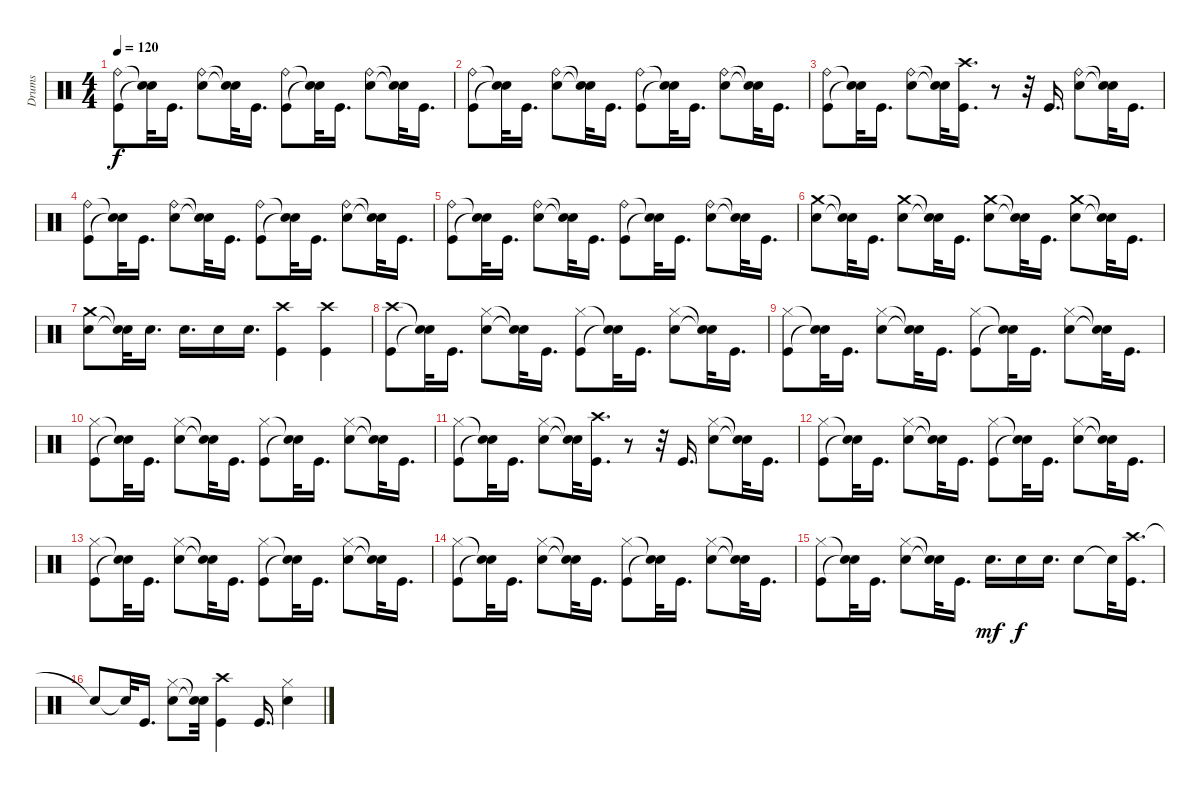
\track ("Drums" "Drums") {instrument percussion}
\staff {score}
\articulation defaults
\ts (4 4)
\tempo 120
\clef neutral
\ks c
("Kick (hit)" "Ride (bell)").8{dy f} ("Snare (hit)"{t} "Snare (hit)"{t}).32 "Kick (hit)".16{d} ("Snare (hit) 2" "Ride (bell)").8 ("Snare (hit)"{t} "Snare (hit)"{t}).32 "Kick (hit)".16{d} ("Ride (bell)" "Kick (hit)").8 ("Snare (hit)"{t} "Snare (hit)"{t}).32 "Kick (hit)".16{d} ("Ride (bell)" "Snare (hit) 2").8 ("Snare (hit)"{t} "Snare (hit)"{t}).32 "Kick (hit)".16{d} |
("Ride (bell)" "Kick (hit)").8 ("Snare (hit)"{t} "Snare (hit)"{t}).32 "Kick (hit)".16{d} ("Snare (hit) 2" "Ride (bell)").8 ("Snare (hit)"{t} "Snare (hit)"{t}).32 "Kick (hit)".16{d} ("Kick (hit)" "Ride (bell)").8 ("Snare (hit)"{t} "Snare (hit)"{t}).32 "Kick (hit)".16{d} ("Snare (hit) 2" "Ride (bell)").8 ("Snare (hit)"{t} "Snare (hit)"{t}).32 "Kick (hit)".16{d} |
("Kick (hit)" "Ride (bell)").8 ("Snare (hit)"{t} "Snare (hit)"{t}).32 "Kick (hit)".16{d} ("Ride (bell)" "Snare (hit) 2").8 ("Snare (hit)"{t} "Snare (hit)"{t}).32 ("Kick (hit)" "Crash high (hit)").16{d} r.8 r.32 "Kick (hit)".16{d} ("Snare (hit) 2" "Ride (bell)").8 ("Snare (hit)"{t} "Snare (hit)"{t}).32 "Kick (hit)".16{d} |
("Ride (bell)" "Kick (hit)").8 ("Snare (hit)"{t} "Snare (hit)"{t}).32 "Kick (hit)".16{d} ("Ride (bell)" "Snare (hit) 2").8 ("Snare (hit)"{t} "Snare (hit)"{t}).32 "Kick (hit)".16{d} ("Ride (bell)" "Kick (hit)").8 ("Snare (hit)"{t} "Snare (hit)"{t}).32 "Kick (hit)".16{d} ("Ride (bell)" "Snare (hit) 2").8 ("Snare (hit)"{t} "Snare (hit)"{t}).32 "Kick (hit)".16{d} |
("Ride (bell)" "Kick (hit)").8 ("Snare (hit)"{t} "Snare (hit)"{t}).32 "Kick (hit)".16{d} ("Ride (bell)" "Snare (hit) 2").8 ("Snare (hit)"{t} "Snare (hit)"{t}).32 "Kick (hit)".16{d} ("Ride (bell)" "Kick (hit)").8 ("Snare (hit)"{t} "Snare (hit)"{t}).32 "Kick (hit)".16{d} ("Snare (hit) 2" "Ride (bell)").8 ("Snare (hit)"{t} "Snare (hit)"{t}).32 "Kick (hit)".16{d} |
("Snare (hit) 2" "Crash medium (hit)").8 ("Snare (hit)"{t} "Snare (hit)"{t}).32 "Kick (hit)".16{d} ("Crash medium (hit)" "Snare (hit) 2").8 ("Snare (hit)"{t} "Snare (hit)"{t}).32 "Kick (hit)".16{d} ("Snare (hit) 2" "Crash medium (hit)").8 ("Snare (hit)"{t} "Snare (hit)"{t}).32 "Kick (hit)".16{d} ("Snare (hit) 2" "Crash medium (hit)").8 ("Snare (hit)"{t} "Snare (hit)"{t}).32 "Kick (hit)".16{d} |
("Crash medium (hit)" "Snare (hit) 2").8 ("Snare (hit)"{t} "Snare (hit)"{t}).32 "Snare (hit) 2".16{d} "Snare (hit) 2".16{d} "Snare (hit) 2".16 "Snare (hit) 2".16{d} ("Kick (hit)" "Crash high (hit)").4 ("Crash high (hit)" "Kick (hit)").4 |
("Kick (hit)" "Crash high (hit)").8 ("Snare (hit)"{t} "Snare (hit)"{t}).32 "Kick (hit)".16{d} ("Hi-Hat (closed)" "Snare (hit) 2").8 ("Snare (hit)"{t} "Snare (hit)"{t}).32 "Kick (hit)".16{d} ("Hi-Hat (closed)" "Kick (hit)").8 ("Snare (hit)"{t} "Snare (hit)"{t}).32 "Kick (hit)".16{d} ("Hi-Hat (closed)" "Snare (hit) 2").8 ("Snare (hit)"{t} "Snare (hit)"{t}).32 "Kick (hit)".16{d} |
("Hi-Hat (closed)" "Kick (hit)").8 ("Snare (hit)"{t} "Snare (hit)"{t}).32 "Kick (hit)".16{d} ("Hi-Hat (closed)" "Snare (hit) 2").8 ("Snare (hit)"{t} "Snare (hit)"{t}).32 "Kick (hit)".16{d} ("Hi-Hat (closed)" "Kick (hit)").8 ("Snare (hit)"{t} "Snare (hit)"{t}).32 "Kick (hit)".16{d} ("Snare (hit) 2" "Hi-Hat (closed)").8 ("Snare (hit)"{t} "Snare (hit)"{t}).32 "Kick (hit)".16{d} |
("Kick (hit)" "Hi-Hat (closed)").8 ("Snare (hit)"{t} "Snare (hit)"{t}).32 "Kick (hit)".16{d} ("Snare (hit) 2" "Hi-Hat (closed)").8 ("Snare (hit)"{t} "Snare (hit)"{t}).32 "Kick (hit)".16{d} ("Hi-Hat (closed)" "Kick (hit)").8 ("Snare (hit)"{t} "Snare (hit)"{t}).32 "Kick (hit)".16{d} ("Hi-Hat (closed)" "Snare (hit) 2").8 ("Snare (hit)"{t} "Snare (hit)"{t}).32 "Kick (hit)".16{d} |
("Kick (hit)" "Hi-Hat (closed)").8 ("Snare (hit)"{t} "Snare (hit)"{t}).32 "Kick (hit)".16{d} ("Hi-Hat (closed)" "Snare (hit) 2").8 ("Snare (hit)"{t} "Snare (hit)"{t}).32 ("Kick (hit)" "Crash high (hit)").16{d} r.8 r.32 "Kick (hit)".16{d} ("Hi-Hat (closed)" "Snare (hit) 2").8 ("Snare (hit)"{t} "Snare (hit)"{t}).32 "Kick (hit)".16{d} |
("Kick (hit)" "Hi-Hat (closed)").8 ("Snare (hit)"{t} "Snare (hit)"{t}).32 "Kick (hit)".16{d} ("Hi-Hat (closed)" "Snare (hit) 2").8 ("Snare (hit)"{t} "Snare (hit)"{t}).32 "Kick (hit)".16{d} ("Kick (hit)" "Hi-Hat (closed)").8 ("Snare (hit)"{t} "Snare (hit)"{t}).32 "Kick (hit)".16{d} ("Hi-Hat (closed)" "Snare (hit) 2").8 ("Snare (hit)"{t} "Snare (hit)"{t}).32 "Kick (hit)".16{d} |
("Hi-Hat (closed)" "Kick (hit)").8 ("Snare (hit)"{t} "Snare (hit)"{t}).32 "Kick (hit)".16{d} ("Hi-Hat (closed)" "Snare (hit) 2").8 ("Snare (hit)"{t} "Snare (hit)"{t}).32 "Kick (hit)".16{d} ("Kick (hit)" "Hi-Hat (closed)").8 ("Snare (hit)"{t} "Snare (hit)"{t}).32 "Kick (hit)".16{d} ("Snare (hit) 2" "Hi-Hat (closed)").8 ("Snare (hit)"{t} "Snare (hit)"{t}).32 "Kick (hit)".16{d} |
("Hi-Hat (closed)" "Kick (hit)").8 ("Snare (hit)"{t} "Snare (hit)"{t}).32 "Kick (hit)".16{d} ("Hi-Hat (closed)" "Snare (hit) 2").8 ("Snare (hit)"{t} "Snare (hit)"{t}).32 "Kick (hit)".16{d} ("Hi-Hat (closed)" "Kick (hit)").8 ("Snare (hit)"{t} "Snare (hit)"{t}).32 "Kick (hit)".16{d} ("Hi-Hat (closed)" "Snare (hit) 2").8 ("Snare (hit)"{t} "Snare (hit)"{t}).32 "Kick (hit)".16{d} |
("Kick (hit)" "Hi-Hat (closed)").8 ("Snare (hit)"{t} "Snare (hit)"{t}).32 "Kick (hit)".16{d} ("Snare (hit) 2" "Hi-Hat (closed)").8 ("Snare (hit)"{t} "Snare (hit)"{t}).32 "Kick (hit)".16{d} "Snare (hit) 2".16{d dy mf} "Snare (hit) 2".16{dy f} "Snare (hit) 2".16{d} "Snare (hit) 2".8 "Snare (hit)"{t}.32 ("Crash high (hit)" "Kick (hit)").16{d} |
"Snare (hit)"{t}.8 "Snare (hit)"{t}.32 "Kick (hit)".16{d} ("Snare (hit) 2" "Hi-Hat (closed)").8 ("Snare (hit)"{t} "Snare (hit)"{t}).32 ("Kick (hit)" "Crash high (hit)").4 "Kick (hit)".16{d} ("Snare (hit) 2" "Hi-Hat (closed)").4
